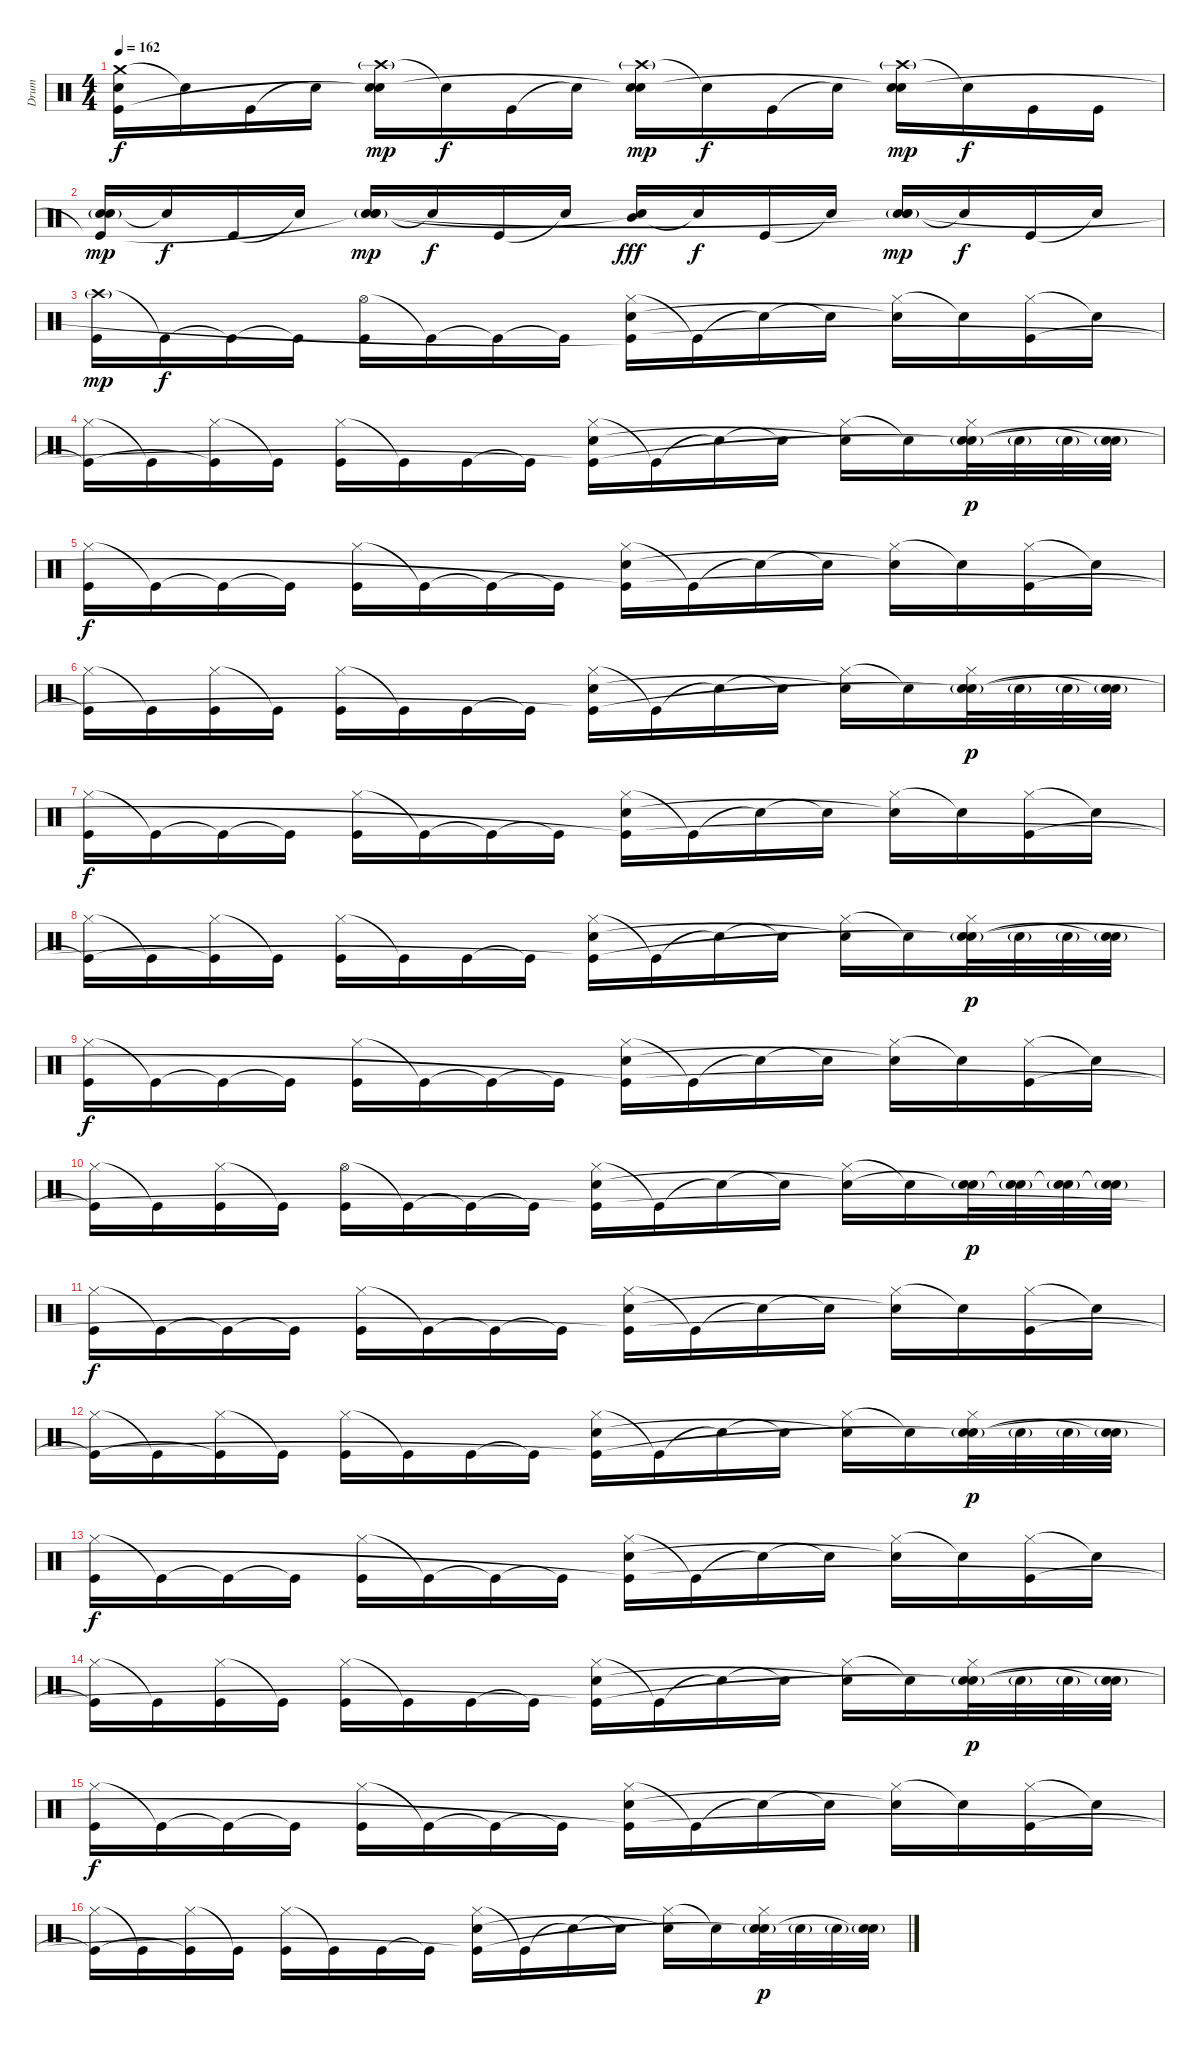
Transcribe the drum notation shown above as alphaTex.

\track ("Drum" "Drum") {instrument percussion}
\staff {score}
\articulation defaults
\ts (4 4)
\tempo 162
\clef neutral
\ks c
("Crash medium (hit)" "Electric Snare (hit)" "Kick (hit)"{t}).16{dy f} "Snare (hit)"{t}.16 "Kick (hit)".16 "Snare (hit)"{t}.16 ("Crash high (hit)"{g} "Electric Snare (hit)" "Snare (hit)"{t}).16{dy mp} "Snare (hit)"{t}.16{dy f} "Kick (hit)".16 "Snare (hit)"{t}.16 ("Crash high (hit)"{g} "Electric Snare (hit)" "Snare (hit)"{t}).16{dy mp} "Snare (hit)"{t}.16{dy f} "Kick (hit)".16 "Snare (hit)"{t}.16 ("Crash high (hit)"{g} "Electric Snare (hit)" "Snare (hit)"{t}).16{dy mp} "Snare (hit)"{t}.16{dy f} "Kick (hit)".16 "Kick (hit)".16 |
("Electric Snare (hit)"{g} "Electric Snare (hit)" "Kick (hit)"{t}).16{bd 480 dy mp} "Snare (hit)"{t}.16{dy f} "Kick (hit)".16 "Snare (hit)"{t}.16 ("Electric Snare (hit)"{g} "Electric Snare (hit)" "Snare (hit)"{t}).16{bd 480 dy mp} "Snare (hit)"{t}.16{dy f} "Kick (hit)".16 "Snare (hit)"{t}.16 ("Mid Tom (hit)" "Snare (hit)"{t}).16{dy fff} "Snare (hit)"{t}.16{dy f} "Kick (hit)".16 "Snare (hit)"{t}.16 ("Electric Snare (hit)"{g} "Electric Snare (hit)" "Snare (hit)"{t}).16{bd 480 dy mp} "Snare (hit)"{t}.16{dy f} "Kick (hit)".16 "Snare (hit)"{t}.16 |
("Crash high (hit)"{g} "Kick (hit)").16{dy mp} "Kick (hit)"{t}.16{dy f} "Kick (hit)"{t}.16 "Kick (hit)"{t}.16 ("Hi-Hat (open)" "Kick (hit)").16 "Kick (hit)"{t}.16 "Kick (hit)"{t}.16 "Kick (hit)"{t}.16 ("Hi-Hat (closed)" "Electric Snare (hit)" "Kick (hit)"{t}).16 "Kick (hit)"{t}.16 "Snare (hit)"{t}.16 "Snare (hit)"{t}.16 ("Hi-Hat (closed)" "Snare (hit)"{t}).16 "Snare (hit)"{t}.16 ("Hi-Hat (closed)" "Kick (hit)").16 "Snare (hit)"{t}.16 |
("Hi-Hat (closed)" "Kick (hit)"{t}).16 "Kick (hit)"{t}.16 ("Hi-Hat (closed)" "Kick (hit)"{t}).16 "Kick (hit)"{t}.16 ("Hi-Hat (closed)" "Kick (hit)").16 "Kick (hit)"{t}.16 "Kick (hit)".16 "Kick (hit)"{t}.16 ("Hi-Hat (closed)" "Electric Snare (hit)" "Kick (hit)"{t}).16 "Kick (hit)"{t}.16 "Snare (hit)"{t}.16 "Snare (hit)"{t}.16 ("Hi-Hat (closed)" "Snare (hit)"{t}).16 "Snare (hit)"{t}.16 ("Hi-Hat (closed)" "Electric Snare (hit)"{g} "Snare (hit)"{t}).32{dy p} "Electric Snare (hit)"{g}.32 "Electric Snare (hit)"{g}.32 ("Electric Snare (hit)"{g} "Snare (hit)"{t}).32 |
("Hi-Hat (closed)" "Kick (hit)").16{dy f} "Kick (hit)"{t}.16 "Kick (hit)"{t}.16 "Kick (hit)"{t}.16 ("Hi-Hat (closed)" "Kick (hit)").16 "Kick (hit)"{t}.16 "Kick (hit)"{t}.16 "Kick (hit)"{t}.16 ("Hi-Hat (closed)" "Electric Snare (hit)" "Kick (hit)"{t}).16 "Kick (hit)"{t}.16 "Snare (hit)"{t}.16 "Snare (hit)"{t}.16 ("Hi-Hat (closed)" "Snare (hit)"{t}).16 "Snare (hit)"{t}.16 ("Hi-Hat (closed)" "Kick (hit)").16 "Snare (hit)"{t}.16 |
("Hi-Hat (closed)" "Kick (hit)"{t}).16 "Kick (hit)"{t}.16 ("Hi-Hat (closed)" "Kick (hit)").16 "Kick (hit)"{t}.16 ("Hi-Hat (closed)" "Kick (hit)").16 "Kick (hit)"{t}.16 "Kick (hit)".16 "Kick (hit)"{t}.16 ("Hi-Hat (closed)" "Electric Snare (hit)" "Kick (hit)"{t}).16 "Kick (hit)"{t}.16 "Snare (hit)"{t}.16 "Snare (hit)"{t}.16 ("Hi-Hat (closed)" "Snare (hit)"{t}).16 "Snare (hit)"{t}.16 ("Hi-Hat (closed)" "Electric Snare (hit)"{g} "Snare (hit)"{t}).32{dy p} "Electric Snare (hit)"{g}.32 "Electric Snare (hit)"{g}.32 ("Electric Snare (hit)"{g} "Snare (hit)"{t}).32 |
("Hi-Hat (closed)" "Kick (hit)").16{dy f} "Kick (hit)"{t}.16 "Kick (hit)"{t}.16 "Kick (hit)"{t}.16 ("Hi-Hat (closed)" "Kick (hit)").16 "Kick (hit)"{t}.16 "Kick (hit)"{t}.16 "Kick (hit)"{t}.16 ("Hi-Hat (closed)" "Electric Snare (hit)" "Kick (hit)"{t}).16 "Kick (hit)"{t}.16 "Snare (hit)"{t}.16 "Snare (hit)"{t}.16 ("Hi-Hat (closed)" "Snare (hit)"{t}).16 "Snare (hit)"{t}.16 ("Hi-Hat (closed)" "Kick (hit)").16 "Snare (hit)"{t}.16 |
("Hi-Hat (closed)" "Kick (hit)"{t}).16 "Kick (hit)"{t}.16 ("Hi-Hat (closed)" "Kick (hit)"{t}).16 "Kick (hit)"{t}.16 ("Hi-Hat (closed)" "Kick (hit)").16 "Kick (hit)"{t}.16 "Kick (hit)".16 "Kick (hit)"{t}.16 ("Hi-Hat (closed)" "Electric Snare (hit)" "Kick (hit)"{t}).16 "Kick (hit)"{t}.16 "Snare (hit)"{t}.16 "Snare (hit)"{t}.16 ("Hi-Hat (closed)" "Snare (hit)"{t}).16 "Snare (hit)"{t}.16 ("Hi-Hat (closed)" "Electric Snare (hit)"{g} "Snare (hit)"{t}).32{dy p} "Electric Snare (hit)"{g}.32 "Electric Snare (hit)"{g}.32 ("Electric Snare (hit)"{g} "Snare (hit)"{t}).32 |
("Hi-Hat (closed)" "Kick (hit)").16{dy f} "Kick (hit)"{t}.16 "Kick (hit)"{t}.16 "Kick (hit)"{t}.16 ("Hi-Hat (closed)" "Kick (hit)").16 "Kick (hit)"{t}.16 "Kick (hit)"{t}.16 "Kick (hit)"{t}.16 ("Hi-Hat (closed)" "Electric Snare (hit)" "Kick (hit)"{t}).16 "Kick (hit)"{t}.16 "Snare (hit)"{t}.16 "Snare (hit)"{t}.16 ("Hi-Hat (closed)" "Snare (hit)"{t}).16 "Snare (hit)"{t}.16 ("Hi-Hat (closed)" "Kick (hit)").16 "Snare (hit)"{t}.16 |
("Hi-Hat (closed)" "Kick (hit)"{t}).16 "Kick (hit)"{t}.16 ("Hi-Hat (closed)" "Kick (hit)").16 "Kick (hit)"{t}.16 ("Hi-Hat (open)" "Kick (hit)").16 "Kick (hit)"{t}.16 "Kick (hit)"{t}.16 "Kick (hit)"{t}.16 ("Hi-Hat (closed)" "Electric Snare (hit)" "Kick (hit)"{t}).16 "Kick (hit)"{t}.16 "Snare (hit)"{t}.16 "Snare (hit)"{t}.16 ("Hi-Hat (closed)" "Snare (hit)"{t}).16 "Snare (hit)"{t}.16 ("Electric Snare (hit)"{g} "Snare (hit)"{t}).32{dy p} ("Electric Snare (hit)"{g} "Snare (hit)"{t}).32 ("Electric Snare (hit)"{g} "Snare (hit)"{t}).32 ("Electric Snare (hit)"{g} "Snare (hit)"{t}).32 |
("Hi-Hat (closed)" "Kick (hit)").16{dy f} "Kick (hit)"{t}.16 "Kick (hit)"{t}.16 "Kick (hit)"{t}.16 ("Hi-Hat (closed)" "Kick (hit)").16 "Kick (hit)"{t}.16 "Kick (hit)"{t}.16 "Kick (hit)"{t}.16 ("Hi-Hat (closed)" "Electric Snare (hit)" "Kick (hit)"{t}).16 "Kick (hit)"{t}.16 "Snare (hit)"{t}.16 "Snare (hit)"{t}.16 ("Hi-Hat (closed)" "Snare (hit)"{t}).16 "Snare (hit)"{t}.16 ("Hi-Hat (closed)" "Kick (hit)").16 "Snare (hit)"{t}.16 |
("Hi-Hat (closed)" "Kick (hit)"{t}).16 "Kick (hit)"{t}.16 ("Hi-Hat (closed)" "Kick (hit)"{t}).16 "Kick (hit)"{t}.16 ("Hi-Hat (closed)" "Kick (hit)").16 "Kick (hit)"{t}.16 "Kick (hit)".16 "Kick (hit)"{t}.16 ("Hi-Hat (closed)" "Electric Snare (hit)" "Kick (hit)"{t}).16 "Kick (hit)"{t}.16 "Snare (hit)"{t}.16 "Snare (hit)"{t}.16 ("Hi-Hat (closed)" "Snare (hit)"{t}).16 "Snare (hit)"{t}.16 ("Hi-Hat (closed)" "Electric Snare (hit)"{g} "Snare (hit)"{t}).32{dy p} "Electric Snare (hit)"{g}.32 "Electric Snare (hit)"{g}.32 ("Electric Snare (hit)"{g} "Snare (hit)"{t}).32 |
("Hi-Hat (closed)" "Kick (hit)").16{dy f} "Kick (hit)"{t}.16 "Kick (hit)"{t}.16 "Kick (hit)"{t}.16 ("Hi-Hat (closed)" "Kick (hit)").16 "Kick (hit)"{t}.16 "Kick (hit)"{t}.16 "Kick (hit)"{t}.16 ("Hi-Hat (closed)" "Electric Snare (hit)" "Kick (hit)"{t}).16 "Kick (hit)"{t}.16 "Snare (hit)"{t}.16 "Snare (hit)"{t}.16 ("Hi-Hat (closed)" "Snare (hit)"{t}).16 "Snare (hit)"{t}.16 ("Hi-Hat (closed)" "Kick (hit)").16 "Snare (hit)"{t}.16 |
("Hi-Hat (closed)" "Kick (hit)"{t}).16 "Kick (hit)"{t}.16 ("Hi-Hat (closed)" "Kick (hit)").16 "Kick (hit)"{t}.16 ("Hi-Hat (closed)" "Kick (hit)").16 "Kick (hit)"{t}.16 "Kick (hit)".16 "Kick (hit)"{t}.16 ("Hi-Hat (closed)" "Electric Snare (hit)" "Kick (hit)"{t}).16 "Kick (hit)"{t}.16 "Snare (hit)"{t}.16 "Snare (hit)"{t}.16 ("Hi-Hat (closed)" "Snare (hit)"{t}).16 "Snare (hit)"{t}.16 ("Hi-Hat (closed)" "Electric Snare (hit)"{g} "Snare (hit)"{t}).32{dy p} "Electric Snare (hit)"{g}.32 "Electric Snare (hit)"{g}.32 ("Electric Snare (hit)"{g} "Snare (hit)"{t}).32 |
("Hi-Hat (closed)" "Kick (hit)").16{dy f} "Kick (hit)"{t}.16 "Kick (hit)"{t}.16 "Kick (hit)"{t}.16 ("Hi-Hat (closed)" "Kick (hit)").16 "Kick (hit)"{t}.16 "Kick (hit)"{t}.16 "Kick (hit)"{t}.16 ("Hi-Hat (closed)" "Electric Snare (hit)" "Kick (hit)"{t}).16 "Kick (hit)"{t}.16 "Snare (hit)"{t}.16 "Snare (hit)"{t}.16 ("Hi-Hat (closed)" "Snare (hit)"{t}).16 "Snare (hit)"{t}.16 ("Hi-Hat (closed)" "Kick (hit)").16 "Snare (hit)"{t}.16 |
("Hi-Hat (closed)" "Kick (hit)"{t}).16 "Kick (hit)"{t}.16 ("Hi-Hat (closed)" "Kick (hit)"{t}).16 "Kick (hit)"{t}.16 ("Hi-Hat (closed)" "Kick (hit)").16 "Kick (hit)"{t}.16 "Kick (hit)".16 "Kick (hit)"{t}.16 ("Hi-Hat (closed)" "Electric Snare (hit)" "Kick (hit)"{t}).16 "Kick (hit)"{t}.16 "Snare (hit)"{t}.16 "Snare (hit)"{t}.16 ("Hi-Hat (closed)" "Snare (hit)"{t}).16 "Snare (hit)"{t}.16 ("Hi-Hat (closed)" "Electric Snare (hit)"{g} "Snare (hit)"{t}).32{dy p} "Electric Snare (hit)"{g}.32 "Electric Snare (hit)"{g}.32 ("Electric Snare (hit)"{g} "Snare (hit)"{t}).32
